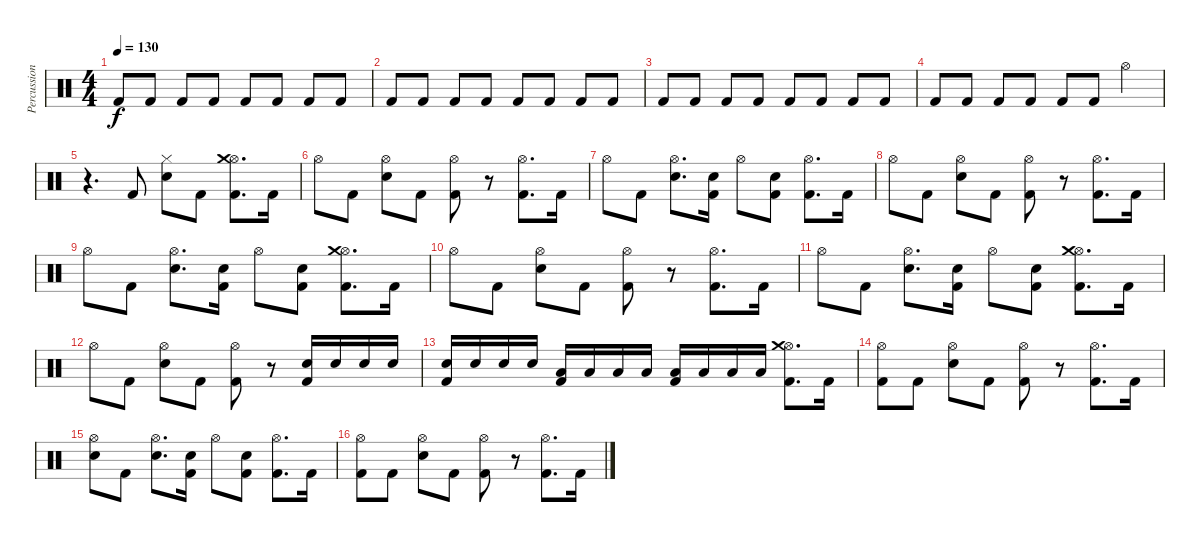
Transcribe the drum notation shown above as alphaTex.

\track ("Percussion" "Percussion") {instrument percussion}
\staff {score}
\articulation defaults
\ts (4 4)
\tempo 130
\clef neutral
\ks c "Kick (hit) 2".8{dy f} "Kick (hit) 2".8 "Kick (hit) 2".8 "Kick (hit) 2".8 "Kick (hit) 2".8 "Kick (hit) 2".8 "Kick (hit) 2".8 "Kick (hit) 2".8
|
"Kick (hit) 2".8 "Kick (hit) 2".8 "Kick (hit) 2".8 "Kick (hit) 2".8 "Kick (hit) 2".8 "Kick (hit) 2".8 "Kick (hit) 2".8 "Kick (hit) 2".8 |
"Kick (hit) 2".8 "Kick (hit) 2".8 "Kick (hit) 2".8 "Kick (hit) 2".8 "Kick (hit) 2".8 "Kick (hit) 2".8 "Kick (hit) 2".8{volume 16} "Kick (hit) 2".8 |
"Kick (hit) 2".8 "Kick (hit) 2".8 "Kick (hit) 2".8 "Kick (hit) 2".8 "Kick (hit) 2".8 "Kick (hit) 2".8 "Hi-Hat (open)".4 |
r.4{d volume 13} "Kick (hit) 2".8 ("Hi-Hat (closed)" "Snare (hit) 2").8 "Kick (hit) 2".8 ("Hi-Hat (open)" "Crash medium (hit)" "Kick (hit) 2").8{d} "Kick (hit) 2".16 |
"Hi-Hat (open)".8 "Kick (hit) 2".8 ("Hi-Hat (open)" "Snare (hit) 2").8 "Kick (hit) 2".8 ("Hi-Hat (open)" "Kick (hit) 2").8 r.8 ("Hi-Hat (open)" "Kick (hit) 2").8{d} "Kick (hit) 2".16 |
"Hi-Hat (open)".8 "Kick (hit) 2".8 ("Hi-Hat (open)" "Snare (hit) 2").8{d} ("Snare (hit) 2" "Kick (hit) 2").16 "Hi-Hat (open)".8 ("Snare (hit) 2" "Kick (hit) 2").8 ("Hi-Hat (open)" "Kick (hit) 2").8{d} "Kick (hit) 2".16 |
"Hi-Hat (open)".8 "Kick (hit) 2".8 ("Hi-Hat (open)" "Snare (hit) 2").8 "Kick (hit) 2".8 ("Hi-Hat (open)" "Kick (hit) 2").8 r.8 ("Hi-Hat (open)" "Kick (hit) 2").8{d} "Kick (hit) 2".16 |
"Hi-Hat (open)".8 "Kick (hit) 2".8 ("Hi-Hat (open)" "Snare (hit) 2").8{d} ("Snare (hit) 2" "Kick (hit) 2").16 "Hi-Hat (open)".8 ("Snare (hit) 2" "Kick (hit) 2").8 ("Hi-Hat (open)" "Crash medium (hit)" "Kick (hit) 2").8{d} "Kick (hit) 2".16 |
"Hi-Hat (open)".8 "Kick (hit) 2".8 ("Hi-Hat (open)" "Snare (hit) 2").8 "Kick (hit) 2".8 ("Hi-Hat (open)" "Kick (hit) 2").8 r.8 ("Hi-Hat (open)" "Kick (hit) 2").8{d} "Kick (hit) 2".16 |
"Hi-Hat (open)".8 "Kick (hit) 2".8 ("Hi-Hat (open)" "Snare (hit) 2").8{d} ("Snare (hit) 2" "Kick (hit) 2").16 "Hi-Hat (open)".8 ("Snare (hit) 2" "Kick (hit) 2").8 ("Hi-Hat (open)" "Crash medium (hit)" "Kick (hit) 2").8{d} "Kick (hit) 2".16 |
"Hi-Hat (open)".8 "Kick (hit) 2".8 ("Hi-Hat (open)" "Snare (hit) 2").8 "Kick (hit) 2".8 ("Hi-Hat (open)" "Kick (hit) 2").8 r.8 ("Snare (hit) 2" "Kick (hit) 2").16 "Snare (hit) 2".16 "Snare (hit) 2".16 "Snare (hit) 2".16 |
("Snare (hit) 2" "Kick (hit) 2").16 "Snare (hit) 2".16 "Snare (hit) 2".16 "Snare (hit) 2".16 ("Low Floor Tom (hit)" "Kick (hit) 2").16 "Low Floor Tom (hit)".16 "Low Floor Tom (hit)".16 "Low Floor Tom (hit)".16 ("Low Floor Tom (hit)" "Kick (hit) 2").16 "Low Floor Tom (hit)".16 "Low Floor Tom (hit)".16 "Low Floor Tom (hit)".16 ("Hi-Hat (open)" "Crash medium (hit)" "Kick (hit) 2").8{d} "Kick (hit) 2".16 |
("Hi-Hat (open)" "Kick (hit) 2").8 "Kick (hit) 2".8 ("Hi-Hat (open)" "Snare (hit) 2").8 "Kick (hit) 2".8 ("Hi-Hat (open)" "Kick (hit) 2").8 r.8 ("Hi-Hat (open)" "Kick (hit) 2").8{d} "Kick (hit) 2".16 |
("Hi-Hat (open)" "Snare (hit) 2").8 "Kick (hit) 2".8 ("Hi-Hat (open)" "Snare (hit) 2").8{d} ("Snare (hit) 2" "Kick (hit) 2").16 "Hi-Hat (open)".8 ("Snare (hit) 2" "Kick (hit) 2").8 ("Hi-Hat (open)" "Kick (hit) 2").8{d} "Kick (hit) 2".16 |
("Hi-Hat (open)" "Kick (hit) 2").8 "Kick (hit) 2".8 ("Hi-Hat (open)" "Snare (hit) 2").8 "Kick (hit) 2".8 ("Hi-Hat (open)" "Kick (hit) 2").8 r.8 ("Hi-Hat (open)" "Kick (hit) 2").8{d} "Kick (hit) 2".16
